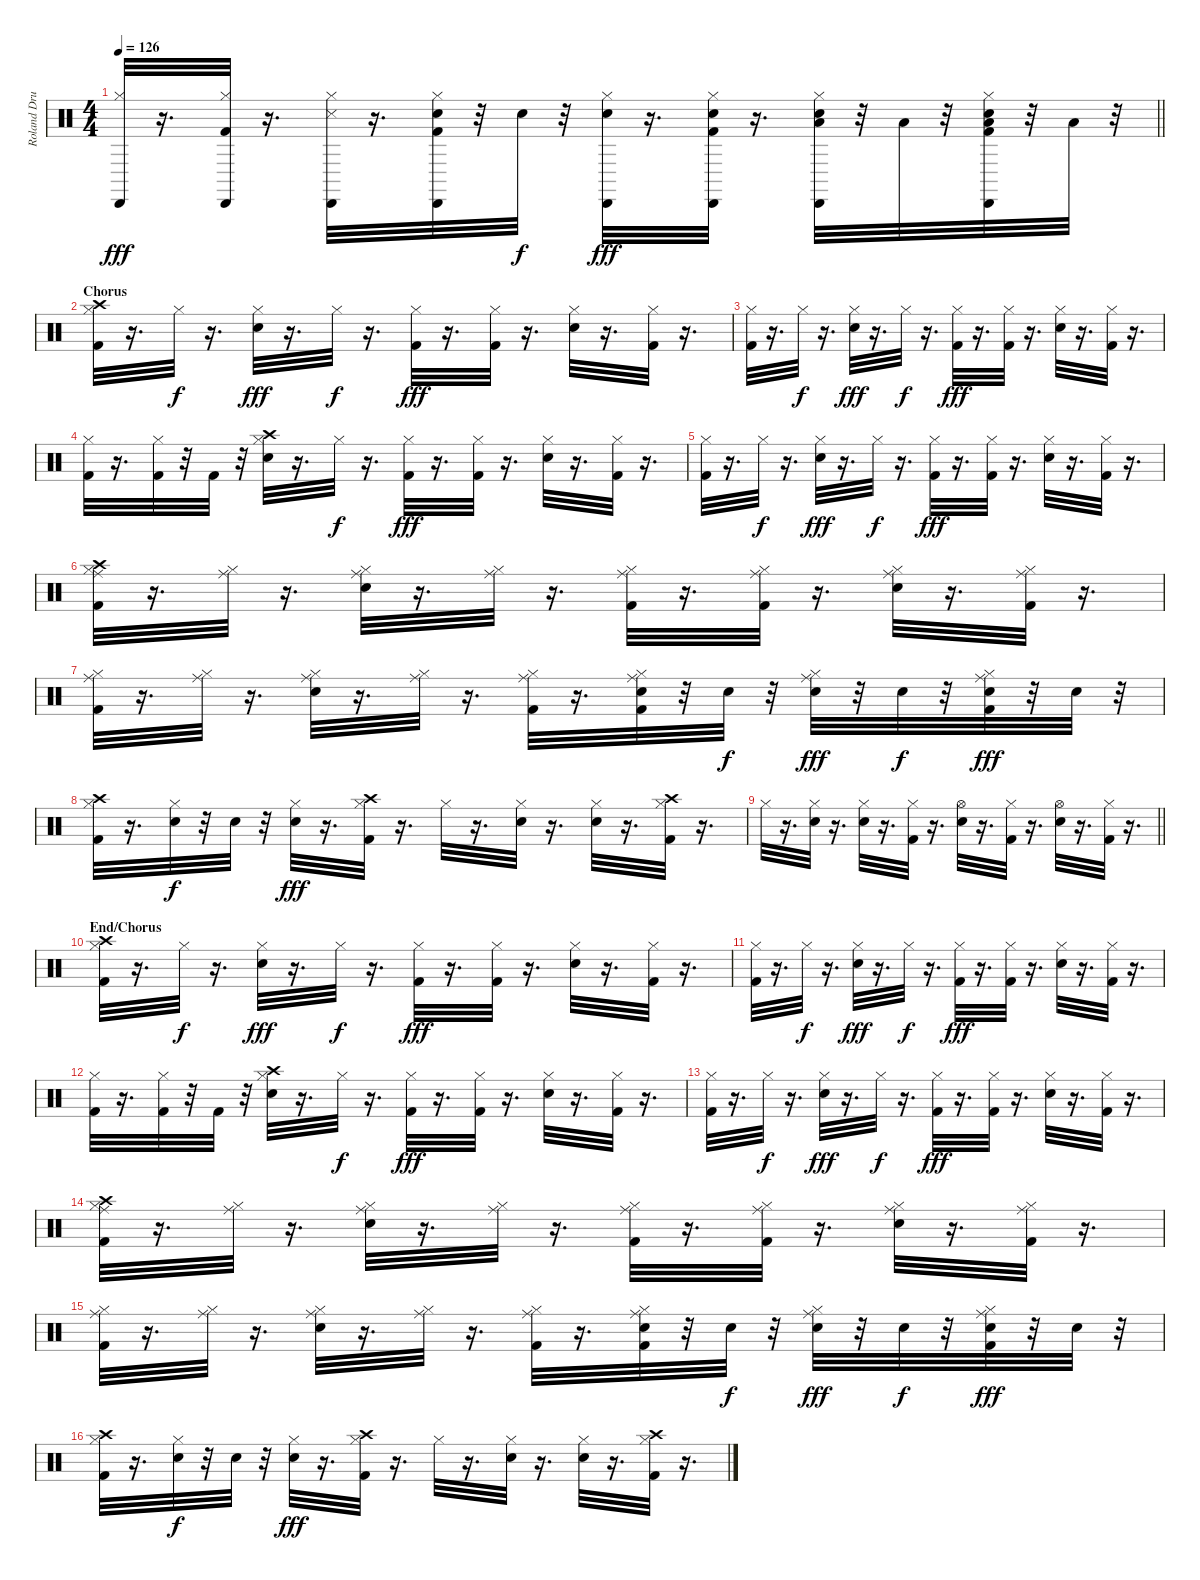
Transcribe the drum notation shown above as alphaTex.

\track ("Roland Drums" "Roland Dru") {instrument percussion}
\staff {score}
\articulation defaults
\ts (4 4)
\tempo 126
\clef neutral
\barLineRight lightlight
\ks c
("Hi-Hat (closed)" "Cabasa (hit)").32{dy fff} r.16{d} ("Kick (hit) 2" "Hi-Hat (closed)" "Cabasa (hit)").32 r.16{d} ("Hi-Hat (closed)" "Snare (side stick) 3" "Cabasa (hit)").32 r.16{d} ("Kick (hit) 2" "Snare (hit) 2" "Hi-Hat (closed)" "Cabasa (hit)").32 r.32 "Snare (hit) 2".32{dy f} r.32 ("Snare (hit) 2" "Hi-Hat (closed)" "Cabasa (hit)").32{dy fff} r.16{d} ("Kick (hit) 2" "Snare (hit) 2" "Hi-Hat (closed)" "Cabasa (hit)").32 r.16{d} ("Snare (hit) 2" "Hi-Hat (closed)" "Cabasa (hit)" "Low Tom (hit)").32 r.32 "Low Tom (hit)".32 r.32 ("Kick (hit) 2" "Snare (hit) 2" "Hi-Hat (closed)" "Cabasa (hit)" "Low Floor Tom (hit)").32 r.32 "Low Floor Tom (hit)".32 r.32 |
\section ("" "Chorus")
("Kick (hit) 2" "Hi-Hat (closed)" "Crash high (hit)").32 r.16{d} "Hi-Hat (closed)".32{dy f} r.16{d} ("Snare (hit) 2" "Hi-Hat (closed)").32{dy fff} r.16{d} "Hi-Hat (closed)".32{dy f} r.16{d} ("Kick (hit) 2" "Hi-Hat (closed)").32{dy fff} r.16{d} ("Kick (hit) 2" "Hi-Hat (closed)").32 r.16{d} ("Snare (hit) 2" "Hi-Hat (closed)").32 r.16{d} ("Kick (hit) 2" "Hi-Hat (closed)").32 r.16{d} |
("Kick (hit) 2" "Hi-Hat (closed)").32 r.16{d} "Hi-Hat (closed)".32{dy f} r.16{d} ("Snare (hit) 2" "Hi-Hat (closed)").32{dy fff} r.16{d} "Hi-Hat (closed)".32{dy f} r.16{d} ("Kick (hit) 2" "Hi-Hat (closed)").32{dy fff} r.16{d} ("Kick (hit) 2" "Hi-Hat (closed)").32 r.16{d} ("Snare (hit) 2" "Hi-Hat (closed)").32 r.16{d} ("Kick (hit) 2" "Hi-Hat (closed)").32 r.16{d} |
("Kick (hit) 2" "Hi-Hat (closed)").32 r.16{d} ("Kick (hit) 2" "Hi-Hat (closed)").32 r.32 "Kick (hit) 2".32 r.32 ("Snare (hit) 2" "Hi-Hat (closed)" "Crash high (hit)").32 r.16{d} "Hi-Hat (closed)".32{dy f} r.16{d} ("Kick (hit) 2" "Hi-Hat (closed)").32{dy fff} r.16{d} ("Kick (hit) 2" "Hi-Hat (closed)").32 r.16{d} ("Snare (hit) 2" "Hi-Hat (closed)").32 r.16{d} ("Kick (hit) 2" "Hi-Hat (closed)").32 r.16{d} |
("Kick (hit) 2" "Hi-Hat (closed)").32 r.16{d} "Hi-Hat (closed)".32{dy f} r.16{d} ("Snare (hit) 2" "Hi-Hat (closed)").32{dy fff} r.16{d} "Hi-Hat (closed)".32{dy f} r.16{d} ("Kick (hit) 2" "Hi-Hat (closed)").32{dy fff} r.16{d} ("Kick (hit) 2" "Hi-Hat (closed)").32 r.16{d} ("Snare (hit) 2" "Hi-Hat (closed)").32 r.16{d} ("Kick (hit) 2" "Hi-Hat (closed)").32 r.16{d} |
("Kick (hit) 2" "Hi-Hat (closed)" "Crash high (hit)" "Ride (middle)").32 r.16{d} ("Hi-Hat (closed)" "Ride (middle)").32 r.16{d} ("Snare (hit) 2" "Hi-Hat (closed)" "Ride (middle)").32 r.16{d} ("Hi-Hat (closed)" "Ride (middle)").32 r.16{d} ("Kick (hit) 2" "Hi-Hat (closed)" "Ride (middle)").32 r.16{d} ("Kick (hit) 2" "Hi-Hat (closed)" "Ride (middle)").32 r.16{d} ("Snare (hit) 2" "Hi-Hat (closed)" "Ride (middle)").32 r.16{d} ("Kick (hit) 2" "Hi-Hat (closed)" "Ride (middle)").32 r.16{d} |
("Kick (hit) 2" "Hi-Hat (closed)" "Ride (middle)").32 r.16{d} ("Hi-Hat (closed)" "Ride (middle)").32 r.16{d} ("Snare (hit) 2" "Hi-Hat (closed)" "Ride (middle)").32 r.16{d} ("Hi-Hat (closed)" "Ride (middle)").32 r.16{d} ("Kick (hit) 2" "Hi-Hat (closed)" "Ride (middle)").32 r.16{d} ("Kick (hit) 2" "Snare (hit) 2" "Hi-Hat (closed)" "Ride (middle)").32 r.32 "Snare (hit) 2".32{dy f} r.32 ("Snare (hit) 2" "Hi-Hat (closed)" "Ride (middle)").32{dy fff} r.32 "Snare (hit) 2".32{dy f} r.32 ("Kick (hit) 2" "Snare (hit) 2" "Hi-Hat (closed)" "Ride (middle)").32{dy fff} r.32 "Snare (hit) 2".32 r.32 |
("Kick (hit) 2" "Hi-Hat (closed)" "Crash high (hit)").32 r.16{d} ("Snare (hit) 2" "Hi-Hat (closed)").32{dy f} r.32 "Snare (hit) 2".32 r.32 ("Snare (hit) 2" "Hi-Hat (closed)").32{dy fff} r.16{d} ("Kick (hit) 2" "Hi-Hat (closed)" "Crash high (hit)").32 r.16{d} "Hi-Hat (closed)".32 r.16{d} ("Snare (hit) 2" "Hi-Hat (closed)").32 r.16{d} ("Snare (hit) 2" "Hi-Hat (closed)").32 r.16{d} ("Kick (hit) 2" "Hi-Hat (closed)" "Crash high (hit)").32 r.16{d} |
\barLineRight lightlight "Hi-Hat (closed)".32
r.16{d} ("Snare (hit) 2" "Hi-Hat (closed)").32 r.16{d} ("Snare (hit) 2" "Hi-Hat (closed)").32 r.16{d} ("Kick (hit) 2" "Hi-Hat (closed)").32 r.16{d} ("Snare (hit) 2" "Hi-Hat (open)").32 r.16{d} ("Kick (hit) 2" "Hi-Hat (closed)").32 r.16{d} ("Snare (hit) 2" "Hi-Hat (open)").32 r.16{d} ("Kick (hit) 2" "Hi-Hat (closed)").32 r.16{d} |
\section ("" "End/Chorus")
("Kick (hit) 2" "Hi-Hat (closed)" "Crash high (hit)").32 r.16{d} "Hi-Hat (closed)".32{dy f} r.16{d} ("Snare (hit) 2" "Hi-Hat (closed)").32{dy fff} r.16{d} "Hi-Hat (closed)".32{dy f} r.16{d} ("Kick (hit) 2" "Hi-Hat (closed)").32{dy fff} r.16{d} ("Kick (hit) 2" "Hi-Hat (closed)").32 r.16{d} ("Snare (hit) 2" "Hi-Hat (closed)").32 r.16{d} ("Kick (hit) 2" "Hi-Hat (closed)").32 r.16{d} |
("Kick (hit) 2" "Hi-Hat (closed)").32 r.16{d} "Hi-Hat (closed)".32{dy f} r.16{d} ("Snare (hit) 2" "Hi-Hat (closed)").32{dy fff} r.16{d} "Hi-Hat (closed)".32{dy f} r.16{d} ("Kick (hit) 2" "Hi-Hat (closed)").32{dy fff} r.16{d} ("Kick (hit) 2" "Hi-Hat (closed)").32 r.16{d} ("Snare (hit) 2" "Hi-Hat (closed)").32 r.16{d} ("Kick (hit) 2" "Hi-Hat (closed)").32 r.16{d} |
("Kick (hit) 2" "Hi-Hat (closed)").32 r.16{d} ("Kick (hit) 2" "Hi-Hat (closed)").32 r.32 "Kick (hit) 2".32 r.32 ("Snare (hit) 2" "Hi-Hat (closed)" "Crash high (hit)").32 r.16{d} "Hi-Hat (closed)".32{dy f} r.16{d} ("Kick (hit) 2" "Hi-Hat (closed)").32{dy fff} r.16{d} ("Kick (hit) 2" "Hi-Hat (closed)").32 r.16{d} ("Snare (hit) 2" "Hi-Hat (closed)").32 r.16{d} ("Kick (hit) 2" "Hi-Hat (closed)").32 r.16{d} |
("Kick (hit) 2" "Hi-Hat (closed)").32 r.16{d} "Hi-Hat (closed)".32{dy f} r.16{d} ("Snare (hit) 2" "Hi-Hat (closed)").32{dy fff} r.16{d} "Hi-Hat (closed)".32{dy f} r.16{d} ("Kick (hit) 2" "Hi-Hat (closed)").32{dy fff} r.16{d} ("Kick (hit) 2" "Hi-Hat (closed)").32 r.16{d} ("Snare (hit) 2" "Hi-Hat (closed)").32 r.16{d} ("Kick (hit) 2" "Hi-Hat (closed)").32 r.16{d} |
("Kick (hit) 2" "Hi-Hat (closed)" "Crash high (hit)" "Ride (middle)").32 r.16{d} ("Hi-Hat (closed)" "Ride (middle)").32 r.16{d} ("Snare (hit) 2" "Hi-Hat (closed)" "Ride (middle)").32 r.16{d} ("Hi-Hat (closed)" "Ride (middle)").32 r.16{d} ("Kick (hit) 2" "Hi-Hat (closed)" "Ride (middle)").32 r.16{d} ("Kick (hit) 2" "Hi-Hat (closed)" "Ride (middle)").32 r.16{d} ("Snare (hit) 2" "Hi-Hat (closed)" "Ride (middle)").32 r.16{d} ("Kick (hit) 2" "Hi-Hat (closed)" "Ride (middle)").32 r.16{d} |
("Kick (hit) 2" "Hi-Hat (closed)" "Ride (middle)").32 r.16{d} ("Hi-Hat (closed)" "Ride (middle)").32 r.16{d} ("Snare (hit) 2" "Hi-Hat (closed)" "Ride (middle)").32 r.16{d} ("Hi-Hat (closed)" "Ride (middle)").32 r.16{d} ("Kick (hit) 2" "Hi-Hat (closed)" "Ride (middle)").32 r.16{d} ("Kick (hit) 2" "Snare (hit) 2" "Hi-Hat (closed)" "Ride (middle)").32 r.32 "Snare (hit) 2".32{dy f} r.32 ("Snare (hit) 2" "Hi-Hat (closed)" "Ride (middle)").32{dy fff} r.32 "Snare (hit) 2".32{dy f} r.32 ("Kick (hit) 2" "Snare (hit) 2" "Hi-Hat (closed)" "Ride (middle)").32{dy fff} r.32 "Snare (hit) 2".32 r.32 |
("Kick (hit) 2" "Hi-Hat (closed)" "Crash high (hit)").32 r.16{d} ("Snare (hit) 2" "Hi-Hat (closed)").32{dy f} r.32 "Snare (hit) 2".32 r.32 ("Snare (hit) 2" "Hi-Hat (closed)").32{dy fff} r.16{d} ("Kick (hit) 2" "Hi-Hat (closed)" "Crash high (hit)").32 r.16{d} "Hi-Hat (closed)".32 r.16{d} ("Snare (hit) 2" "Hi-Hat (closed)").32 r.16{d} ("Snare (hit) 2" "Hi-Hat (closed)").32 r.16{d} ("Kick (hit) 2" "Hi-Hat (closed)" "Crash high (hit)").32 r.16{d}
